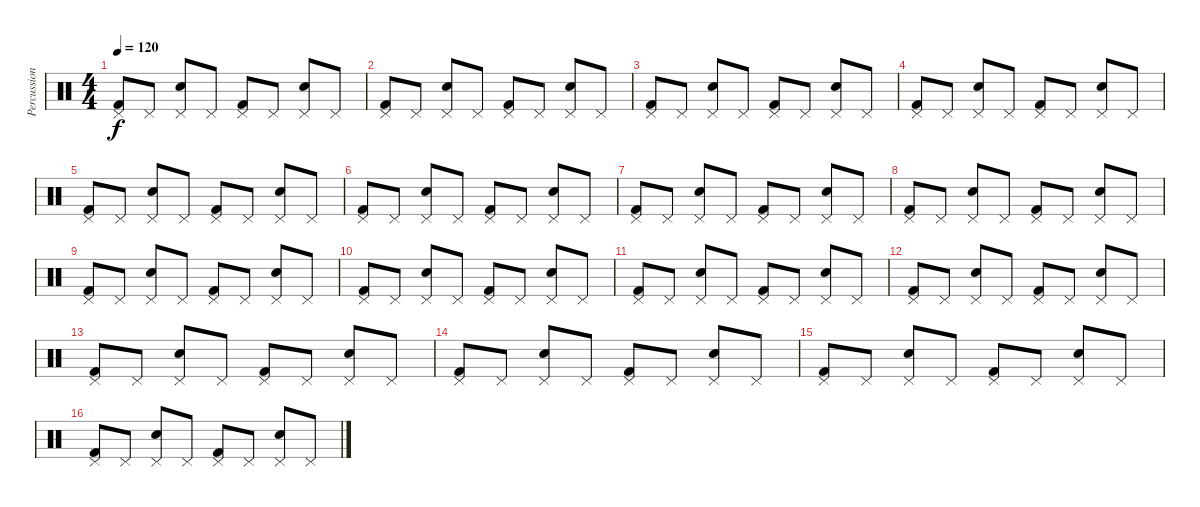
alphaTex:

\track ("Percussions" "Percussion") {instrument percussion}
\staff {score}
\articulation defaults
\ts (4 4)
\tempo 120
\clef neutral
\ks c
("Pedal Hi-Hat (hit)" "Kick (hit) 2").8{dy f} "Pedal Hi-Hat (hit)".8 ("Pedal Hi-Hat (hit)" "Snare (hit) 2").8 "Pedal Hi-Hat (hit)".8 ("Pedal Hi-Hat (hit)" "Kick (hit) 2").8 "Pedal Hi-Hat (hit)".8 ("Pedal Hi-Hat (hit)" "Snare (hit) 2").8 "Pedal Hi-Hat (hit)".8 |
("Pedal Hi-Hat (hit)" "Kick (hit) 2").8 "Pedal Hi-Hat (hit)".8 ("Pedal Hi-Hat (hit)" "Snare (hit) 2").8 "Pedal Hi-Hat (hit)".8 ("Pedal Hi-Hat (hit)" "Kick (hit) 2").8 "Pedal Hi-Hat (hit)".8 ("Pedal Hi-Hat (hit)" "Snare (hit) 2").8 "Pedal Hi-Hat (hit)".8 |
("Pedal Hi-Hat (hit)" "Kick (hit) 2").8 "Pedal Hi-Hat (hit)".8 ("Pedal Hi-Hat (hit)" "Snare (hit) 2").8 "Pedal Hi-Hat (hit)".8 ("Pedal Hi-Hat (hit)" "Kick (hit) 2").8 "Pedal Hi-Hat (hit)".8 ("Pedal Hi-Hat (hit)" "Snare (hit) 2").8 "Pedal Hi-Hat (hit)".8 |
("Pedal Hi-Hat (hit)" "Kick (hit) 2").8 "Pedal Hi-Hat (hit)".8 ("Pedal Hi-Hat (hit)" "Snare (hit) 2").8 "Pedal Hi-Hat (hit)".8 ("Pedal Hi-Hat (hit)" "Kick (hit) 2").8 "Pedal Hi-Hat (hit)".8 ("Pedal Hi-Hat (hit)" "Snare (hit) 2").8 "Pedal Hi-Hat (hit)".8 |
("Pedal Hi-Hat (hit)" "Kick (hit) 2").8 "Pedal Hi-Hat (hit)".8 ("Pedal Hi-Hat (hit)" "Snare (hit) 2").8 "Pedal Hi-Hat (hit)".8 ("Pedal Hi-Hat (hit)" "Kick (hit) 2").8 "Pedal Hi-Hat (hit)".8 ("Pedal Hi-Hat (hit)" "Snare (hit) 2").8 "Pedal Hi-Hat (hit)".8 |
("Pedal Hi-Hat (hit)" "Kick (hit) 2").8 "Pedal Hi-Hat (hit)".8 ("Pedal Hi-Hat (hit)" "Snare (hit) 2").8 "Pedal Hi-Hat (hit)".8 ("Pedal Hi-Hat (hit)" "Kick (hit) 2").8 "Pedal Hi-Hat (hit)".8 ("Pedal Hi-Hat (hit)" "Snare (hit) 2").8 "Pedal Hi-Hat (hit)".8 |
("Pedal Hi-Hat (hit)" "Kick (hit) 2").8 "Pedal Hi-Hat (hit)".8 ("Pedal Hi-Hat (hit)" "Snare (hit) 2").8 "Pedal Hi-Hat (hit)".8 ("Pedal Hi-Hat (hit)" "Kick (hit) 2").8 "Pedal Hi-Hat (hit)".8 ("Pedal Hi-Hat (hit)" "Snare (hit) 2").8 "Pedal Hi-Hat (hit)".8 |
("Pedal Hi-Hat (hit)" "Kick (hit) 2").8 "Pedal Hi-Hat (hit)".8 ("Pedal Hi-Hat (hit)" "Snare (hit) 2").8 "Pedal Hi-Hat (hit)".8 ("Pedal Hi-Hat (hit)" "Kick (hit) 2").8 "Pedal Hi-Hat (hit)".8 ("Pedal Hi-Hat (hit)" "Snare (hit) 2").8 "Pedal Hi-Hat (hit)".8 |
("Pedal Hi-Hat (hit)" "Kick (hit) 2").8 "Pedal Hi-Hat (hit)".8 ("Pedal Hi-Hat (hit)" "Snare (hit) 2").8 "Pedal Hi-Hat (hit)".8 ("Pedal Hi-Hat (hit)" "Kick (hit) 2").8 "Pedal Hi-Hat (hit)".8 ("Pedal Hi-Hat (hit)" "Snare (hit) 2").8 "Pedal Hi-Hat (hit)".8 |
("Pedal Hi-Hat (hit)" "Kick (hit) 2").8 "Pedal Hi-Hat (hit)".8 ("Pedal Hi-Hat (hit)" "Snare (hit) 2").8 "Pedal Hi-Hat (hit)".8 ("Pedal Hi-Hat (hit)" "Kick (hit) 2").8 "Pedal Hi-Hat (hit)".8 ("Pedal Hi-Hat (hit)" "Snare (hit) 2").8 "Pedal Hi-Hat (hit)".8 |
("Pedal Hi-Hat (hit)" "Kick (hit) 2").8 "Pedal Hi-Hat (hit)".8 ("Pedal Hi-Hat (hit)" "Snare (hit) 2").8 "Pedal Hi-Hat (hit)".8 ("Pedal Hi-Hat (hit)" "Kick (hit) 2").8 "Pedal Hi-Hat (hit)".8 ("Pedal Hi-Hat (hit)" "Snare (hit) 2").8 "Pedal Hi-Hat (hit)".8 |
("Pedal Hi-Hat (hit)" "Kick (hit) 2").8 "Pedal Hi-Hat (hit)".8 ("Pedal Hi-Hat (hit)" "Snare (hit) 2").8 "Pedal Hi-Hat (hit)".8 ("Pedal Hi-Hat (hit)" "Kick (hit) 2").8 "Pedal Hi-Hat (hit)".8 ("Pedal Hi-Hat (hit)" "Snare (hit) 2").8 "Pedal Hi-Hat (hit)".8 |
("Pedal Hi-Hat (hit)" "Kick (hit) 2").8 "Pedal Hi-Hat (hit)".8 ("Pedal Hi-Hat (hit)" "Snare (hit) 2").8 "Pedal Hi-Hat (hit)".8 ("Pedal Hi-Hat (hit)" "Kick (hit) 2").8 "Pedal Hi-Hat (hit)".8 ("Pedal Hi-Hat (hit)" "Snare (hit) 2").8 "Pedal Hi-Hat (hit)".8 |
("Pedal Hi-Hat (hit)" "Kick (hit) 2").8 "Pedal Hi-Hat (hit)".8 ("Pedal Hi-Hat (hit)" "Snare (hit) 2").8 "Pedal Hi-Hat (hit)".8 ("Pedal Hi-Hat (hit)" "Kick (hit) 2").8 "Pedal Hi-Hat (hit)".8 ("Pedal Hi-Hat (hit)" "Snare (hit) 2").8 "Pedal Hi-Hat (hit)".8 |
("Pedal Hi-Hat (hit)" "Kick (hit) 2").8 "Pedal Hi-Hat (hit)".8 ("Pedal Hi-Hat (hit)" "Snare (hit) 2").8 "Pedal Hi-Hat (hit)".8 ("Pedal Hi-Hat (hit)" "Kick (hit) 2").8 "Pedal Hi-Hat (hit)".8 ("Pedal Hi-Hat (hit)" "Snare (hit) 2").8 "Pedal Hi-Hat (hit)".8 |
("Pedal Hi-Hat (hit)" "Kick (hit) 2").8 "Pedal Hi-Hat (hit)".8 ("Pedal Hi-Hat (hit)" "Snare (hit) 2").8 "Pedal Hi-Hat (hit)".8 ("Pedal Hi-Hat (hit)" "Kick (hit) 2").8 "Pedal Hi-Hat (hit)".8 ("Pedal Hi-Hat (hit)" "Snare (hit) 2").8 "Pedal Hi-Hat (hit)".8
